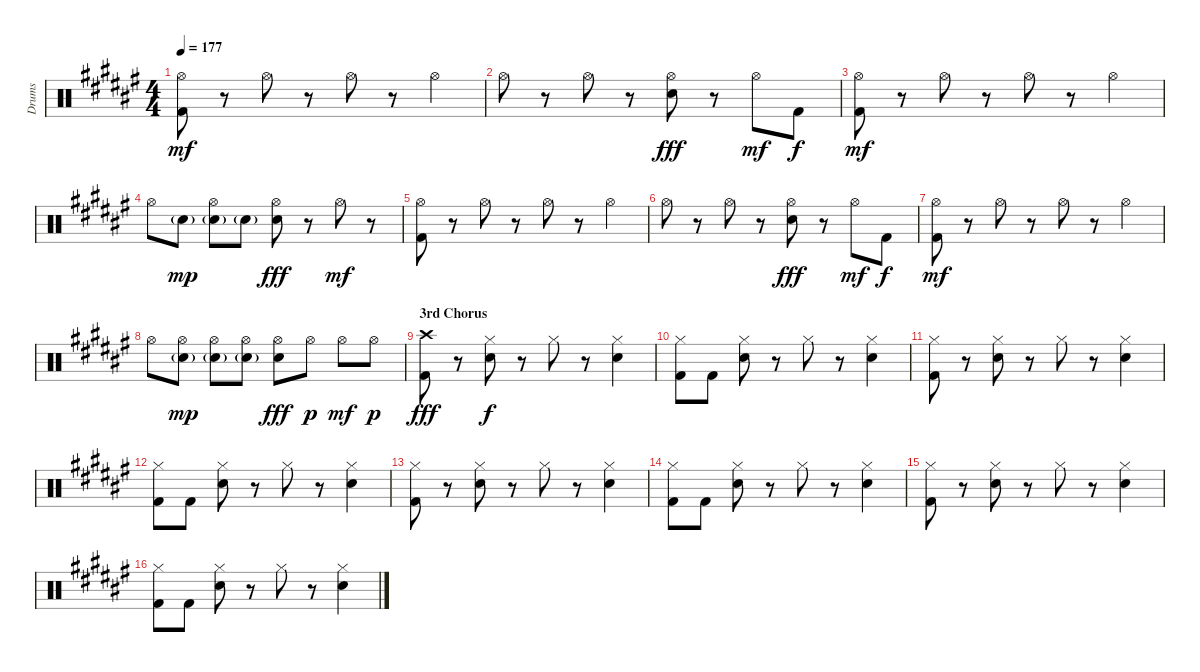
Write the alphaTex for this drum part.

\track ("Drums" "Drums") {instrument percussion}
\staff {score}
\articulation defaults
\ts (4 4)
\tempo 177
\clef neutral
\ks d#minor
("Hi-Hat (open)" "Kick (hit) 2").8{dy mf} r.8 "Hi-Hat (open)".8 r.8 "Hi-Hat (open)".8 r.8 "Hi-Hat (open)".4 |
"Hi-Hat (open)".8 r.8 "Hi-Hat (open)".8 r.8 ("Hi-Hat (open)" "Snare (hit) 2").8{dy fff} r.8 "Hi-Hat (open)".8{dy mf} "Kick (hit) 2".8{dy f} |
("Hi-Hat (open)" "Kick (hit) 2").8{dy mf} r.8 "Hi-Hat (open)".8 r.8 "Hi-Hat (open)".8 r.8 "Hi-Hat (open)".4 |
"Hi-Hat (open)".8 "Snare (hit) 2"{g}.8{dy mp} ("Hi-Hat (open)" "Snare (hit) 2"{g}).8 "Snare (hit) 2"{g}.8 ("Hi-Hat (open)" "Snare (hit) 2").8{dy fff} r.8 "Hi-Hat (open)".8{dy mf} r.8 |
("Hi-Hat (open)" "Kick (hit) 2").8 r.8 "Hi-Hat (open)".8 r.8 "Hi-Hat (open)".8 r.8 "Hi-Hat (open)".4 |
"Hi-Hat (open)".8 r.8 "Hi-Hat (open)".8 r.8 ("Hi-Hat (open)" "Snare (hit) 2").8{dy fff} r.8 "Hi-Hat (open)".8{dy mf} "Kick (hit) 2".8{dy f} |
("Hi-Hat (open)" "Kick (hit) 2").8{dy mf} r.8 "Hi-Hat (open)".8 r.8 "Hi-Hat (open)".8 r.8 "Hi-Hat (open)".4 |
"Hi-Hat (open)".8 ("Hi-Hat (open)" "Snare (hit) 2"{g}).8{dy mp} ("Hi-Hat (open)" "Snare (hit) 2"{g}).8 ("Hi-Hat (open)" "Snare (hit) 2"{g}).8 ("Hi-Hat (open)" "Snare (hit) 2").8{dy fff} "Hi-Hat (open)".8{dy p} "Hi-Hat (open)".8{dy mf} "Hi-Hat (open)".8{dy p} |
\section ("" "3rd Chorus")
("Crash high (hit)" "Kick (hit) 2").8{dy fff} r.8 ("Hi-Hat (closed)" "Snare (hit) 2").8{dy f} r.8 "Hi-Hat (closed)".8 r.8 ("Hi-Hat (closed)" "Snare (hit) 2").4 |
("Hi-Hat (closed)" "Kick (hit) 2").8 "Kick (hit) 2".8 ("Hi-Hat (closed)" "Snare (hit) 2").8 r.8 "Hi-Hat (closed)".8 r.8 ("Hi-Hat (closed)" "Snare (hit) 2").4 |
("Hi-Hat (closed)" "Kick (hit) 2").8 r.8 ("Hi-Hat (closed)" "Snare (hit) 2").8 r.8 "Hi-Hat (closed)".8 r.8 ("Hi-Hat (closed)" "Snare (hit) 2").4 |
("Hi-Hat (closed)" "Kick (hit) 2").8 "Kick (hit) 2".8 ("Hi-Hat (closed)" "Snare (hit) 2").8 r.8 "Hi-Hat (closed)".8 r.8 ("Hi-Hat (closed)" "Snare (hit) 2").4 |
("Hi-Hat (closed)" "Kick (hit) 2").8 r.8 ("Hi-Hat (closed)" "Snare (hit) 2").8 r.8 "Hi-Hat (closed)".8 r.8 ("Hi-Hat (closed)" "Snare (hit) 2").4 |
("Hi-Hat (closed)" "Kick (hit) 2").8 "Kick (hit) 2".8 ("Hi-Hat (closed)" "Snare (hit) 2").8 r.8 "Hi-Hat (closed)".8 r.8 ("Hi-Hat (closed)" "Snare (hit) 2").4 |
("Hi-Hat (closed)" "Kick (hit) 2").8 r.8 ("Hi-Hat (closed)" "Snare (hit) 2").8 r.8 "Hi-Hat (closed)".8 r.8 ("Hi-Hat (closed)" "Snare (hit) 2").4 |
("Hi-Hat (closed)" "Kick (hit) 2").8 "Kick (hit) 2".8 ("Hi-Hat (closed)" "Snare (hit) 2").8 r.8 "Hi-Hat (closed)".8 r.8 ("Hi-Hat (closed)" "Snare (hit) 2").4
